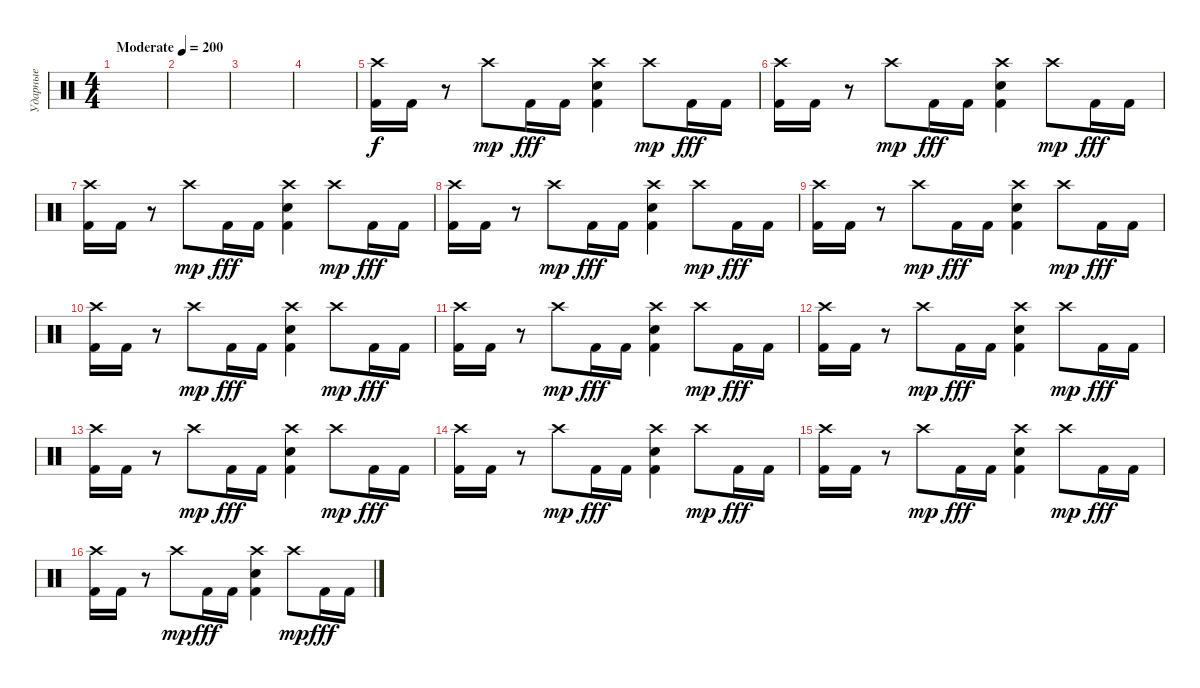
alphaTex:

\track ("Ударные" "Ударные") {instrument percussion}
\staff {score}
\articulation defaults
\ts (4 4)
\tempo (200 "Moderate")
\clef neutral
\ks c
|
|
|
|
("Crash high (hit)" "Kick (hit) 2").16 "Kick (hit) 2".16 r.8 "Crash high (hit)".8{dy mp} "Kick (hit) 2".16{dy fff} "Kick (hit) 2".16 ("Crash high (hit)" "Electric Snare (hit)" "Kick (hit) 2").4 "Crash high (hit)".8{dy mp} "Kick (hit) 2".16{dy fff} "Kick (hit) 2".16 |
("Crash high (hit)" "Kick (hit) 2").16 "Kick (hit) 2".16 r.8 "Crash high (hit)".8{dy mp} "Kick (hit) 2".16{dy fff} "Kick (hit) 2".16 ("Crash high (hit)" "Electric Snare (hit)" "Kick (hit) 2").4 "Crash high (hit)".8{dy mp} "Kick (hit) 2".16{dy fff} "Kick (hit) 2".16 |
("Crash high (hit)" "Kick (hit) 2").16 "Kick (hit) 2".16 r.8 "Crash high (hit)".8{dy mp} "Kick (hit) 2".16{dy fff} "Kick (hit) 2".16 ("Crash high (hit)" "Electric Snare (hit)" "Kick (hit) 2").4 "Crash high (hit)".8{dy mp} "Kick (hit) 2".16{dy fff} "Kick (hit) 2".16 |
("Crash high (hit)" "Kick (hit) 2").16 "Kick (hit) 2".16 r.8 "Crash high (hit)".8{dy mp} "Kick (hit) 2".16{dy fff} "Kick (hit) 2".16 ("Crash high (hit)" "Electric Snare (hit)" "Kick (hit) 2").4 "Crash high (hit)".8{dy mp} "Kick (hit) 2".16{dy fff} "Kick (hit) 2".16 |
("Crash high (hit)" "Kick (hit) 2").16 "Kick (hit) 2".16 r.8 "Crash high (hit)".8{dy mp} "Kick (hit) 2".16{dy fff} "Kick (hit) 2".16 ("Crash high (hit)" "Electric Snare (hit)" "Kick (hit) 2").4 "Crash high (hit)".8{dy mp} "Kick (hit) 2".16{dy fff} "Kick (hit) 2".16 |
("Crash high (hit)" "Kick (hit) 2").16 "Kick (hit) 2".16 r.8 "Crash high (hit)".8{dy mp} "Kick (hit) 2".16{dy fff} "Kick (hit) 2".16 ("Crash high (hit)" "Electric Snare (hit)" "Kick (hit) 2").4 "Crash high (hit)".8{dy mp} "Kick (hit) 2".16{dy fff} "Kick (hit) 2".16 |
("Crash high (hit)" "Kick (hit) 2").16 "Kick (hit) 2".16 r.8 "Crash high (hit)".8{dy mp} "Kick (hit) 2".16{dy fff} "Kick (hit) 2".16 ("Crash high (hit)" "Electric Snare (hit)" "Kick (hit) 2").4 "Crash high (hit)".8{dy mp} "Kick (hit) 2".16{dy fff} "Kick (hit) 2".16 |
("Crash high (hit)" "Kick (hit) 2").16 "Kick (hit) 2".16 r.8 "Crash high (hit)".8{dy mp} "Kick (hit) 2".16{dy fff} "Kick (hit) 2".16 ("Crash high (hit)" "Electric Snare (hit)" "Kick (hit) 2").4 "Crash high (hit)".8{dy mp} "Kick (hit) 2".16{dy fff} "Kick (hit) 2".16 |
("Crash high (hit)" "Kick (hit) 2").16 "Kick (hit) 2".16 r.8 "Crash high (hit)".8{dy mp} "Kick (hit) 2".16{dy fff} "Kick (hit) 2".16 ("Crash high (hit)" "Electric Snare (hit)" "Kick (hit) 2").4 "Crash high (hit)".8{dy mp} "Kick (hit) 2".16{dy fff} "Kick (hit) 2".16 |
("Crash high (hit)" "Kick (hit) 2").16 "Kick (hit) 2".16 r.8 "Crash high (hit)".8{dy mp} "Kick (hit) 2".16{dy fff} "Kick (hit) 2".16 ("Crash high (hit)" "Electric Snare (hit)" "Kick (hit) 2").4 "Crash high (hit)".8{dy mp} "Kick (hit) 2".16{dy fff} "Kick (hit) 2".16 |
("Crash high (hit)" "Kick (hit) 2").16 "Kick (hit) 2".16 r.8 "Crash high (hit)".8{dy mp} "Kick (hit) 2".16{dy fff} "Kick (hit) 2".16 ("Crash high (hit)" "Electric Snare (hit)" "Kick (hit) 2").4 "Crash high (hit)".8{dy mp} "Kick (hit) 2".16{dy fff} "Kick (hit) 2".16 |
("Crash high (hit)" "Kick (hit) 2").16 "Kick (hit) 2".16 r.8 "Crash high (hit)".8{dy mp} "Kick (hit) 2".16{dy fff} "Kick (hit) 2".16 ("Crash high (hit)" "Electric Snare (hit)" "Kick (hit) 2").4 "Crash high (hit)".8{dy mp} "Kick (hit) 2".16{dy fff} "Kick (hit) 2".16
